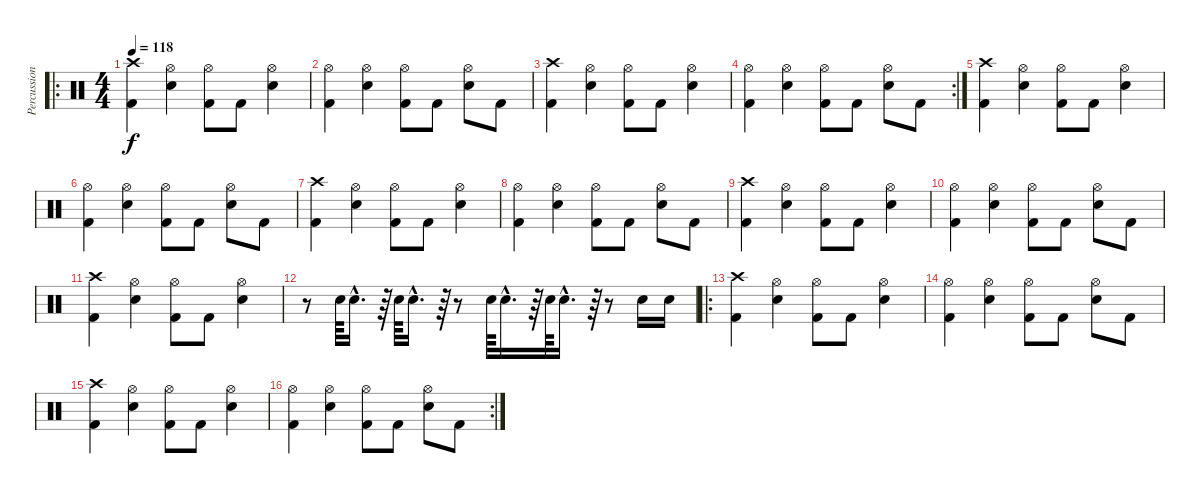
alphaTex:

\track ("Percussion" "Percussion") {instrument percussion}
\staff {score}
\articulation defaults
\ro
\ts (4 4)
\tempo 118
\clef neutral
\ks c
("Crash high (hit)" "Kick (hit) 2").4{dy f} ("Hi-Hat (open)" "Snare (hit) 2").4 ("Hi-Hat (open)" "Kick (hit) 2").8 "Kick (hit) 2".8 ("Hi-Hat (open)" "Snare (hit) 2").4 |
("Hi-Hat (open)" "Kick (hit) 2").4 ("Hi-Hat (open)" "Snare (hit) 2").4 ("Hi-Hat (open)" "Kick (hit) 2").8 "Kick (hit) 2".8 ("Hi-Hat (open)" "Snare (hit) 2").8 "Kick (hit) 2".8 |
("Crash high (hit)" "Kick (hit) 2").4 ("Hi-Hat (open)" "Snare (hit) 2").4 ("Hi-Hat (open)" "Kick (hit) 2").8 "Kick (hit) 2".8 ("Hi-Hat (open)" "Snare (hit) 2").4 |
\rc 2
("Hi-Hat (open)" "Kick (hit) 2").4 ("Hi-Hat (open)" "Snare (hit) 2").4 ("Hi-Hat (open)" "Kick (hit) 2").8 "Kick (hit) 2".8 ("Hi-Hat (open)" "Snare (hit) 2").8 "Kick (hit) 2".8 |
("Crash high (hit)" "Kick (hit) 2").4 ("Hi-Hat (open)" "Snare (hit) 2").4 ("Hi-Hat (open)" "Kick (hit) 2").8 "Kick (hit) 2".8 ("Hi-Hat (open)" "Snare (hit) 2").4 |
("Hi-Hat (open)" "Kick (hit) 2").4 ("Hi-Hat (open)" "Snare (hit) 2").4 ("Hi-Hat (open)" "Kick (hit) 2").8 "Kick (hit) 2".8 ("Hi-Hat (open)" "Snare (hit) 2").8 "Kick (hit) 2".8 |
("Crash high (hit)" "Kick (hit) 2").4 ("Hi-Hat (open)" "Snare (hit) 2").4 ("Hi-Hat (open)" "Kick (hit) 2").8 "Kick (hit) 2".8 ("Hi-Hat (open)" "Snare (hit) 2").4 |
("Hi-Hat (open)" "Kick (hit) 2").4 ("Hi-Hat (open)" "Snare (hit) 2").4 ("Hi-Hat (open)" "Kick (hit) 2").8 "Kick (hit) 2".8 ("Hi-Hat (open)" "Snare (hit) 2").8 "Kick (hit) 2".8 |
("Crash high (hit)" "Kick (hit) 2").4 ("Hi-Hat (open)" "Snare (hit) 2").4 ("Hi-Hat (open)" "Kick (hit) 2").8 "Kick (hit) 2".8 ("Hi-Hat (open)" "Snare (hit) 2").4 |
("Hi-Hat (open)" "Kick (hit) 2").4 ("Hi-Hat (open)" "Snare (hit) 2").4 ("Hi-Hat (open)" "Kick (hit) 2").8 "Kick (hit) 2".8 ("Hi-Hat (open)" "Snare (hit) 2").8 "Kick (hit) 2".8 |
("Crash high (hit)" "Kick (hit) 2").4 ("Hi-Hat (open)" "Snare (hit) 2").4 ("Hi-Hat (open)" "Kick (hit) 2").8 "Kick (hit) 2".8 ("Hi-Hat (open)" "Snare (hit) 2").4 |
r.8 "Snare (hit) 2".64 "Snare (hit) 2"{hac}.16{d} r.64 "Snare (hit) 2".64 "Snare (hit) 2"{hac}.16{d} r.64 r.8 "Snare (hit) 2".64 "Snare (hit) 2"{hac}.16{d} r.64 "Snare (hit) 2".64 "Snare (hit) 2"{hac}.16{d} r.64 r.8 "Snare (hit) 2".16 "Snare (hit) 2".16 |
\ro
("Crash high (hit)" "Kick (hit) 2").4 ("Hi-Hat (open)" "Snare (hit) 2").4 ("Hi-Hat (open)" "Kick (hit) 2").8 "Kick (hit) 2".8 ("Hi-Hat (open)" "Snare (hit) 2").4 |
("Hi-Hat (open)" "Kick (hit) 2").4 ("Hi-Hat (open)" "Snare (hit) 2").4 ("Hi-Hat (open)" "Kick (hit) 2").8 "Kick (hit) 2".8 ("Hi-Hat (open)" "Snare (hit) 2").8 "Kick (hit) 2".8 |
("Crash high (hit)" "Kick (hit) 2").4 ("Hi-Hat (open)" "Snare (hit) 2").4 ("Hi-Hat (open)" "Kick (hit) 2").8 "Kick (hit) 2".8 ("Hi-Hat (open)" "Snare (hit) 2").4 |
\rc 2
("Hi-Hat (open)" "Kick (hit) 2").4 ("Hi-Hat (open)" "Snare (hit) 2").4 ("Hi-Hat (open)" "Kick (hit) 2").8 "Kick (hit) 2".8 ("Hi-Hat (open)" "Snare (hit) 2").8 "Kick (hit) 2".8
